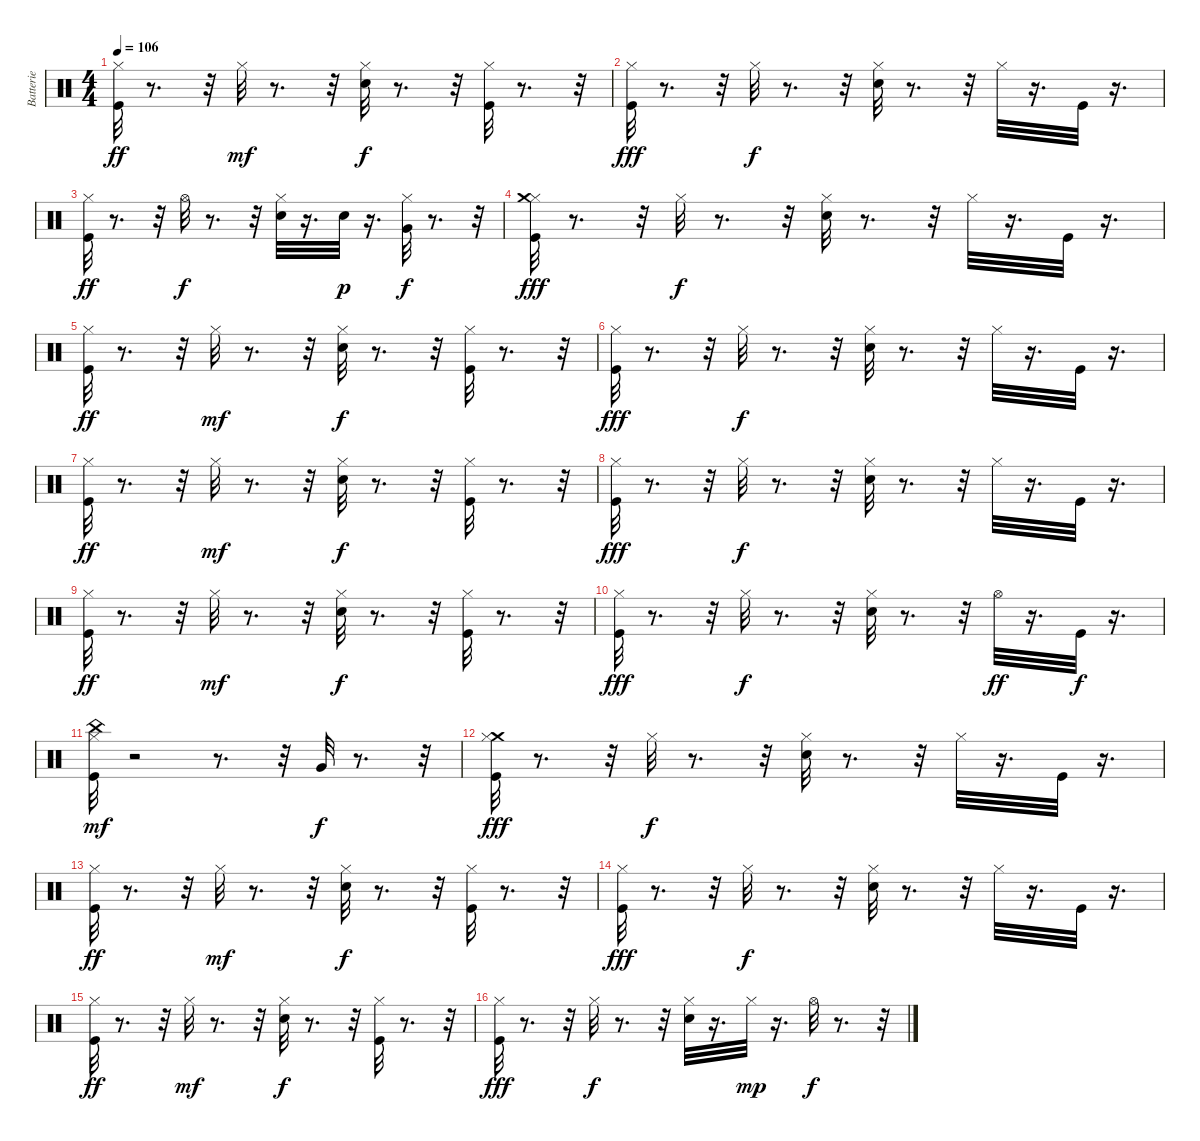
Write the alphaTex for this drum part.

\track ("Batterie" "Batterie") {instrument percussion}
\staff {score}
\articulation defaults
\ts (4 4)
\tempo 106
\clef neutral
\ks c
("Kick (hit)" "Hi-Hat (closed)").32{dy ff} r.8{d} r.32 "Hi-Hat (closed)".32{dy mf} r.8{d} r.32 ("Hi-Hat (closed)" "Snare (hit) 2").32{dy f} r.8{d} r.32 ("Kick (hit)" "Hi-Hat (closed)").32 r.8{d} r.32 |
("Hi-Hat (closed)" "Kick (hit)").32{dy fff} r.8{d} r.32 "Hi-Hat (closed)".32{dy f} r.8{d} r.32 ("Snare (hit) 2" "Hi-Hat (closed)").32 r.8{d} r.32 "Hi-Hat (closed)".32 r.16{d} "Kick (hit)".32 r.16{d} |
("Kick (hit)" "Hi-Hat (closed)").32{dy ff} r.8{d} r.32 "Hi-Hat (open)".32{dy f} r.8{d} r.32 ("Snare (hit) 2" "Hi-Hat (closed)").32 r.16{d} "Snare (hit) 2".32{dy p} r.16{d} ("Hi-Hat (closed)" "Very Low Tom (hit)").32{dy f} r.8{d} r.32 |
("Hi-Hat (closed)" "Crash medium (hit)" "Kick (hit)").32{dy fff} r.8{d} r.32 "Hi-Hat (closed)".32{dy f} r.8{d} r.32 ("Snare (hit) 2" "Hi-Hat (closed)").32 r.8{d} r.32 "Hi-Hat (closed)".32 r.16{d} "Kick (hit)".32 r.16{d} |
("Kick (hit)" "Hi-Hat (closed)").32{dy ff} r.8{d} r.32 "Hi-Hat (closed)".32{dy mf} r.8{d} r.32 ("Hi-Hat (closed)" "Snare (hit) 2").32{dy f} r.8{d} r.32 ("Kick (hit)" "Hi-Hat (closed)").32 r.8{d} r.32 |
("Hi-Hat (closed)" "Kick (hit)").32{dy fff} r.8{d} r.32 "Hi-Hat (closed)".32{dy f} r.8{d} r.32 ("Snare (hit) 2" "Hi-Hat (closed)").32 r.8{d} r.32 "Hi-Hat (closed)".32 r.16{d} "Kick (hit)".32 r.16{d} |
("Kick (hit)" "Hi-Hat (closed)").32{dy ff} r.8{d} r.32 "Hi-Hat (closed)".32{dy mf} r.8{d} r.32 ("Snare (hit) 2" "Hi-Hat (closed)").32{dy f} r.8{d} r.32 ("Kick (hit)" "Hi-Hat (closed)").32 r.8{d} r.32 |
("Hi-Hat (closed)" "Kick (hit)").32{dy fff} r.8{d} r.32 "Hi-Hat (closed)".32{dy f} r.8{d} r.32 ("Snare (hit) 2" "Hi-Hat (closed)").32 r.8{d} r.32 "Hi-Hat (closed)".32 r.16{d} "Kick (hit)".32 r.16{d} |
("Kick (hit)" "Hi-Hat (closed)").32{dy ff} r.8{d} r.32 "Hi-Hat (closed)".32{dy mf} r.8{d} r.32 ("Snare (hit) 2" "Hi-Hat (closed)").32{dy f} r.8{d} r.32 ("Kick (hit)" "Hi-Hat (closed)").32 r.8{d} r.32 |
("Hi-Hat (closed)" "Kick (hit)").32{dy fff} r.8{d} r.32 "Hi-Hat (closed)".32{dy f} r.8{d} r.32 ("Snare (hit) 2" "Hi-Hat (closed)").32 r.8{d} r.32 "Hi-Hat (open)".32{dy ff} r.16{d} "Kick (hit)".32{dy f} r.16{d} |
("Kick (hit)" "Hi-Hat (closed)" "China (hit)").32{dy mf} r.2 r.8{d} r.32 "Very Low Tom (hit)".32{dy f} r.8{d} r.32 |
("Crash medium (hit)" "Hi-Hat (closed)" "Kick (hit)").32{dy fff} r.8{d} r.32 "Hi-Hat (closed)".32{dy f} r.8{d} r.32 ("Snare (hit) 2" "Hi-Hat (closed)").32 r.8{d} r.32 "Hi-Hat (closed)".32 r.16{d} "Kick (hit)".32 r.16{d} |
("Kick (hit)" "Hi-Hat (closed)").32{dy ff} r.8{d} r.32 "Hi-Hat (closed)".32{dy mf} r.8{d} r.32 ("Hi-Hat (closed)" "Snare (hit) 2").32{dy f} r.8{d} r.32 ("Kick (hit)" "Hi-Hat (closed)").32 r.8{d} r.32 |
("Hi-Hat (closed)" "Kick (hit)").32{dy fff} r.8{d} r.32 "Hi-Hat (closed)".32{dy f} r.8{d} r.32 ("Snare (hit) 2" "Hi-Hat (closed)").32 r.8{d} r.32 "Hi-Hat (closed)".32 r.16{d} "Kick (hit)".32 r.16{d} |
("Kick (hit)" "Hi-Hat (closed)").32{dy ff} r.8{d} r.32 "Hi-Hat (closed)".32{dy mf} r.8{d} r.32 ("Snare (hit) 2" "Hi-Hat (closed)").32{dy f} r.8{d} r.32 ("Kick (hit)" "Hi-Hat (closed)").32 r.8{d} r.32 |
("Hi-Hat (closed)" "Kick (hit)").32{dy fff} r.8{d} r.32 "Hi-Hat (closed)".32{dy f} r.8{d} r.32 ("Snare (hit) 2" "Hi-Hat (closed)").32 r.16{d} "Hi-Hat (closed)".32{dy mp} r.16{d} "Hi-Hat (open)".32{dy f} r.8{d} r.32
